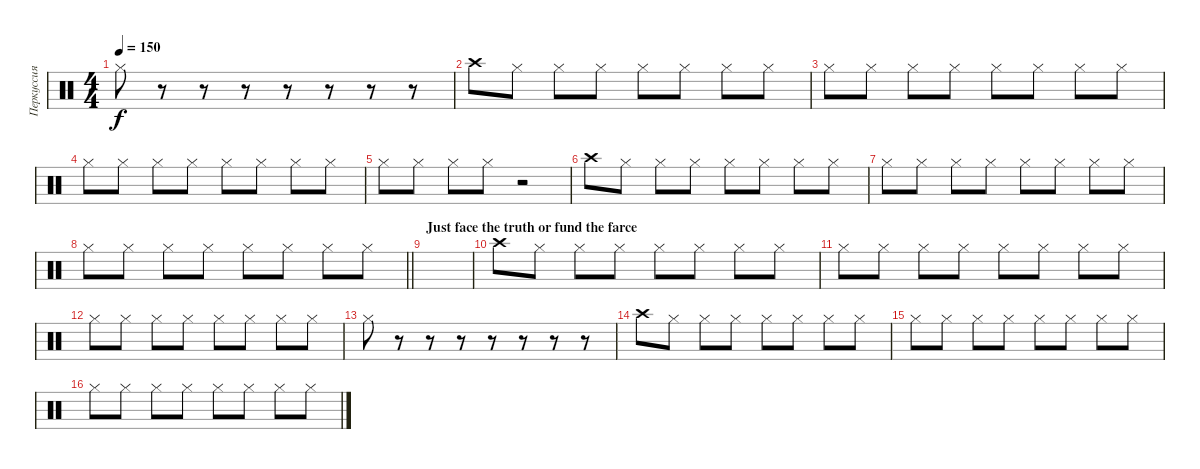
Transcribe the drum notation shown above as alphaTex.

\track ("Перкуссия" "Перкуссия") {instrument percussion}
\staff {score}
\articulation defaults
\ts (4 4)
\tempo 150
\clef neutral
\ks c "Hi-Hat (closed)".8{dy f}
r.8 r.8 r.8 r.8 r.8 r.8 r.8 |
"Crash high (hit)".8 "Hi-Hat (closed)".8 "Hi-Hat (closed)".8 "Hi-Hat (closed)".8 "Hi-Hat (closed)".8 "Hi-Hat (closed)".8 "Hi-Hat (closed)".8 "Hi-Hat (closed)".8 |
"Hi-Hat (closed)".8 "Hi-Hat (closed)".8 "Hi-Hat (closed)".8 "Hi-Hat (closed)".8 "Hi-Hat (closed)".8 "Hi-Hat (closed)".8 "Hi-Hat (closed)".8 "Hi-Hat (closed)".8 |
"Hi-Hat (closed)".8 "Hi-Hat (closed)".8 "Hi-Hat (closed)".8 "Hi-Hat (closed)".8 "Hi-Hat (closed)".8 "Hi-Hat (closed)".8 "Hi-Hat (closed)".8 "Hi-Hat (closed)".8 |
"Hi-Hat (closed)".8 "Hi-Hat (closed)".8 "Hi-Hat (closed)".8 "Hi-Hat (closed)".8 r.2 |
"Crash high (hit)".8 "Hi-Hat (closed)".8 "Hi-Hat (closed)".8 "Hi-Hat (closed)".8 "Hi-Hat (closed)".8 "Hi-Hat (closed)".8 "Hi-Hat (closed)".8 "Hi-Hat (closed)".8 |
"Hi-Hat (closed)".8 "Hi-Hat (closed)".8 "Hi-Hat (closed)".8 "Hi-Hat (closed)".8 "Hi-Hat (closed)".8 "Hi-Hat (closed)".8 "Hi-Hat (closed)".8 "Hi-Hat (closed)".8 |
\barLineRight lightlight "Hi-Hat (closed)".8 "Hi-Hat (closed)".8 "Hi-Hat (closed)".8 "Hi-Hat (closed)".8 "Hi-Hat (closed)".8 "Hi-Hat (closed)".8 "Hi-Hat (closed)".8 "Hi-Hat (closed)".8
|
\section ("" "Just face the truth or fund the farce")
|
"Crash high (hit)".8 "Hi-Hat (closed)".8 "Hi-Hat (closed)".8 "Hi-Hat (closed)".8 "Hi-Hat (closed)".8 "Hi-Hat (closed)".8 "Hi-Hat (closed)".8 "Hi-Hat (closed)".8 |
"Hi-Hat (closed)".8 "Hi-Hat (closed)".8 "Hi-Hat (closed)".8 "Hi-Hat (closed)".8 "Hi-Hat (closed)".8 "Hi-Hat (closed)".8 "Hi-Hat (closed)".8 "Hi-Hat (closed)".8 |
"Hi-Hat (closed)".8 "Hi-Hat (closed)".8 "Hi-Hat (closed)".8 "Hi-Hat (closed)".8 "Hi-Hat (closed)".8 "Hi-Hat (closed)".8 "Hi-Hat (closed)".8 "Hi-Hat (closed)".8 |
"Hi-Hat (closed)".8 r.8 r.8 r.8 r.8 r.8 r.8 r.8 |
"Crash high (hit)".8 "Hi-Hat (closed)".8 "Hi-Hat (closed)".8 "Hi-Hat (closed)".8 "Hi-Hat (closed)".8 "Hi-Hat (closed)".8 "Hi-Hat (closed)".8 "Hi-Hat (closed)".8 |
"Hi-Hat (closed)".8 "Hi-Hat (closed)".8 "Hi-Hat (closed)".8 "Hi-Hat (closed)".8 "Hi-Hat (closed)".8 "Hi-Hat (closed)".8 "Hi-Hat (closed)".8 "Hi-Hat (closed)".8 |
"Hi-Hat (closed)".8 "Hi-Hat (closed)".8 "Hi-Hat (closed)".8 "Hi-Hat (closed)".8 "Hi-Hat (closed)".8 "Hi-Hat (closed)".8 "Hi-Hat (closed)".8 "Hi-Hat (closed)".8
